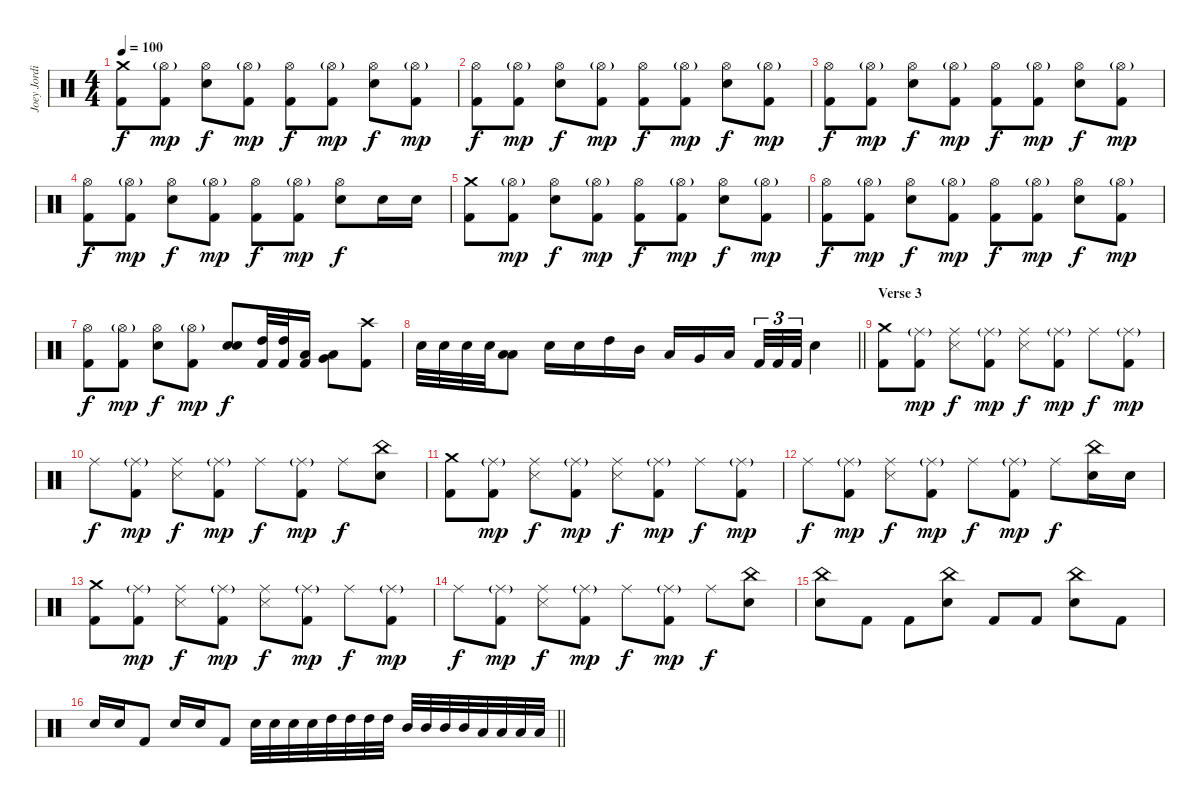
\track ("Joey Jordison" "Joey Jordi") {instrument percussion}
\staff {score}
\articulation defaults
\ts (4 4)
\tempo 100
\clef neutral
\ks c
("Crash medium (hit)" "Kick (hit) 2").8{dy f} ("Hi-Hat (open)"{g} "Kick (hit) 2").8{dy mp} ("Hi-Hat (open)" "Electric Snare (hit)").8{dy f} ("Hi-Hat (open)"{g} "Kick (hit) 2").8{dy mp} ("Hi-Hat (open)" "Kick (hit) 2").8{dy f} ("Hi-Hat (open)"{g} "Kick (hit) 2").8{dy mp} ("Hi-Hat (open)" "Electric Snare (hit)").8{dy f} ("Hi-Hat (open)"{g} "Kick (hit) 2").8{dy mp} |
("Hi-Hat (open)" "Kick (hit) 2").8{dy f} ("Hi-Hat (open)"{g} "Kick (hit) 2").8{dy mp} ("Hi-Hat (open)" "Electric Snare (hit)").8{dy f} ("Hi-Hat (open)"{g} "Kick (hit) 2").8{dy mp} ("Hi-Hat (open)" "Kick (hit) 2").8{dy f} ("Hi-Hat (open)"{g} "Kick (hit) 2").8{dy mp} ("Hi-Hat (open)" "Electric Snare (hit)").8{dy f} ("Hi-Hat (open)"{g} "Kick (hit) 2").8{dy mp} |
("Hi-Hat (open)" "Kick (hit) 2").8{dy f} ("Hi-Hat (open)"{g} "Kick (hit) 2").8{dy mp} ("Hi-Hat (open)" "Electric Snare (hit)").8{dy f} ("Hi-Hat (open)"{g} "Kick (hit) 2").8{dy mp} ("Hi-Hat (open)" "Kick (hit) 2").8{dy f} ("Hi-Hat (open)"{g} "Kick (hit) 2").8{dy mp} ("Hi-Hat (open)" "Electric Snare (hit)").8{dy f} ("Hi-Hat (open)"{g} "Kick (hit) 2").8{dy mp} |
("Hi-Hat (open)" "Kick (hit) 2").8{dy f} ("Hi-Hat (open)"{g} "Kick (hit) 2").8{dy mp} ("Hi-Hat (open)" "Electric Snare (hit)").8{dy f} ("Hi-Hat (open)"{g} "Kick (hit) 2").8{dy mp} ("Hi-Hat (open)" "Kick (hit) 2").8{dy f} ("Hi-Hat (open)"{g} "Kick (hit) 2").8{dy mp} ("Hi-Hat (open)" "Electric Snare (hit)").8{dy f} "Electric Snare (hit)".16 "Electric Snare (hit)".16 |
("Crash medium (hit)" "Kick (hit) 2").8 ("Hi-Hat (open)"{g} "Kick (hit) 2").8{dy mp} ("Hi-Hat (open)" "Electric Snare (hit)").8{dy f} ("Hi-Hat (open)"{g} "Kick (hit) 2").8{dy mp} ("Hi-Hat (open)" "Kick (hit) 2").8{dy f} ("Hi-Hat (open)"{g} "Kick (hit) 2").8{dy mp} ("Hi-Hat (open)" "Electric Snare (hit)").8{dy f} ("Hi-Hat (open)"{g} "Kick (hit) 2").8{dy mp} |
("Hi-Hat (open)" "Kick (hit) 2").8{dy f} ("Hi-Hat (open)"{g} "Kick (hit) 2").8{dy mp} ("Hi-Hat (open)" "Electric Snare (hit)").8{dy f} ("Hi-Hat (open)"{g} "Kick (hit) 2").8{dy mp} ("Hi-Hat (open)" "Kick (hit) 2").8{dy f} ("Hi-Hat (open)"{g} "Kick (hit) 2").8{dy mp} ("Hi-Hat (open)" "Electric Snare (hit)").8{dy f} ("Hi-Hat (open)"{g} "Kick (hit) 2").8{dy mp} |
("Hi-Hat (open)" "Kick (hit) 2").8{dy f} ("Hi-Hat (open)"{g} "Kick (hit) 2").8{dy mp} ("Hi-Hat (open)" "Electric Snare (hit)").8{dy f} ("Hi-Hat (open)"{g} "Kick (hit) 2").8{dy mp} ("Electric Snare (hit)" "Electric Snare (hit)").8{dy f} ("High Tom (hit)" "Kick (hit) 2").32 ("High Tom (hit)" "Kick (hit) 2").32 ("Low Tom (hit)" "Kick (hit) 2").16 ("Very Low Tom (hit)" "Low Floor Tom (hit)").8 ("Crash high (hit)" "Kick (hit) 2").8 |
\barLineRight lightlight "Electric Snare (hit)".32 "Electric Snare (hit)".32 "Electric Snare (hit)".32 "Electric Snare (hit)".32
("Low Tom (hit)" "Low Floor Tom (hit)").8 "Electric Snare (hit)".16 "Electric Snare (hit)".16 "High Tom (hit)".16 "Mid Tom (hit)".16 "Low Tom (hit)".16 "Very Low Tom (hit)".16 "Low Floor Tom (hit)".16{beam splitsecondary} "Kick (hit) 2".32{tu (3 2)} "Kick (hit) 2".32{tu (3 2)} "Kick (hit) 2".32{tu (3 2)} "Electric Snare (hit)".4 |
\section ("" "Verse 3")
("Crash medium (hit)" "Kick (hit) 2").8 ("Ride (middle)"{g} "Kick (hit) 2").8{dy mp} ("Ride (middle)" "Snare (side stick) 3").8{dy f} ("Ride (middle)"{g} "Kick (hit) 2").8{dy mp} ("Ride (middle)" "Snare (side stick) 3").8{dy f} ("Ride (middle)"{g} "Kick (hit) 2").8{dy mp} "Ride (middle)".8{dy f} ("Ride (middle)"{g} "Kick (hit) 2").8{dy mp} |
"Ride (middle)".8{dy f} ("Ride (middle)"{g} "Kick (hit) 2").8{dy mp} ("Ride (middle)" "Snare (side stick) 3").8{dy f} ("Ride (middle)"{g} "Kick (hit) 2").8{dy mp} "Ride (middle)".8{dy f} ("Ride (middle)"{g} "Kick (hit) 2").8{dy mp} "Ride (middle)".8{dy f} ("China (hit)" "Electric Snare (hit)").8 |
("Crash medium (hit)" "Kick (hit) 2").8 ("Ride (middle)"{g} "Kick (hit) 2").8{dy mp} ("Ride (middle)" "Snare (side stick) 3").8{dy f} ("Ride (middle)"{g} "Kick (hit) 2").8{dy mp} ("Ride (middle)" "Snare (side stick) 3").8{dy f} ("Ride (middle)"{g} "Kick (hit) 2").8{dy mp} "Ride (middle)".8{dy f} ("Ride (middle)"{g} "Kick (hit) 2").8{dy mp} |
"Ride (middle)".8{dy f} ("Ride (middle)"{g} "Kick (hit) 2").8{dy mp} ("Ride (middle)" "Snare (side stick) 3").8{dy f} ("Ride (middle)"{g} "Kick (hit) 2").8{dy mp} "Ride (middle)".8{dy f} ("Ride (middle)"{g} "Kick (hit) 2").8{dy mp} "Ride (middle)".8{dy f} ("China (hit)" "Electric Snare (hit)").16 "Electric Snare (hit)".16 |
("Crash medium (hit)" "Kick (hit) 2").8 ("Ride (middle)"{g} "Kick (hit) 2").8{dy mp} ("Ride (middle)" "Snare (side stick) 3").8{dy f} ("Ride (middle)"{g} "Kick (hit) 2").8{dy mp} ("Ride (middle)" "Snare (side stick) 3").8{dy f} ("Ride (middle)"{g} "Kick (hit) 2").8{dy mp} "Ride (middle)".8{dy f} ("Ride (middle)"{g} "Kick (hit) 2").8{dy mp} |
"Ride (middle)".8{dy f} ("Ride (middle)"{g} "Kick (hit) 2").8{dy mp} ("Ride (middle)" "Snare (side stick) 3").8{dy f} ("Ride (middle)"{g} "Kick (hit) 2").8{dy mp} "Ride (middle)".8{dy f} ("Ride (middle)"{g} "Kick (hit) 2").8{dy mp} "Ride (middle)".8{dy f} ("China (hit)" "Electric Snare (hit)").8 |
("China (hit)" "Electric Snare (hit)").8 "Kick (hit) 2".8 "Kick (hit) 2".8 ("China (hit)" "Electric Snare (hit)").8 "Kick (hit) 2".8 "Kick (hit) 2".8 ("China (hit)" "Electric Snare (hit)").8 "Kick (hit) 2".8 |
\barLineRight lightlight "Electric Snare (hit)".16 "Electric Snare (hit)".16 "Kick (hit) 2".8 "Electric Snare (hit)".16 "Electric Snare (hit)".16 "Kick (hit) 2".8 "Electric Snare (hit)".32 "Electric Snare (hit)".32 "Electric Snare (hit)".32 "Electric Snare (hit)".32 "High Tom (hit)".32 "High Tom (hit)".32 "High Tom (hit)".32 "High Tom (hit)".32 "Mid Tom (hit)".32 "Mid Tom (hit)".32 "Mid Tom (hit)".32 "Mid Tom (hit)".32 "Low Tom (hit)".32 "Low Tom (hit)".32 "Low Tom (hit)".32 "Low Tom (hit)".32
